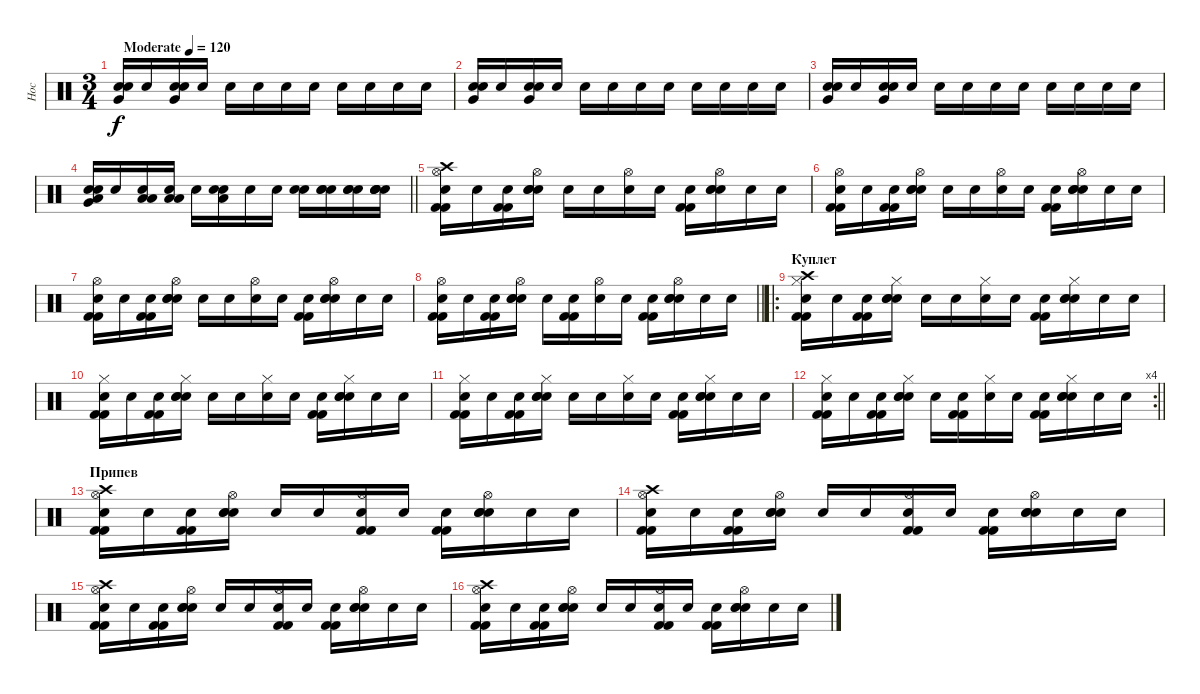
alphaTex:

\track ("Нос" "Нос") {instrument percussion}
\staff {score}
\articulation defaults
\ts (3 4)
\tempo (120 "Moderate")
\clef neutral
\ks c
("Very Low Tom (hit)" "Snare (hit) 2" "Snare (hit)").16{dy f} "Snare (hit)".16 ("Very Low Tom (hit)" "Snare (hit) 2" "Snare (hit)").16 "Snare (hit)".16 "Snare (hit)".16 "Snare (hit)".16 "Snare (hit)".16 "Snare (hit)".16 "Snare (hit)".16 "Snare (hit)".16 "Snare (hit)".16 "Snare (hit)".16 |
("Very Low Tom (hit)" "Snare (hit) 2" "Snare (hit)").16 "Snare (hit)".16 ("Very Low Tom (hit)" "Snare (hit) 2" "Snare (hit)").16 "Snare (hit)".16 "Snare (hit)".16 "Snare (hit)".16 "Snare (hit)".16 "Snare (hit)".16 "Snare (hit)".16 "Snare (hit)".16 "Snare (hit)".16 "Snare (hit)".16 |
("Very Low Tom (hit)" "Snare (hit) 2" "Snare (hit)").16 "Snare (hit)".16 ("Very Low Tom (hit)" "Snare (hit) 2" "Snare (hit)").16 "Snare (hit)".16 "Snare (hit)".16 "Snare (hit)".16 "Snare (hit)".16 "Snare (hit)".16 "Snare (hit)".16 "Snare (hit)".16 "Snare (hit)".16 "Snare (hit)".16 |
\barLineRight lightlight
("Very Low Tom (hit)" "Snare (hit) 2" "Low Tom (hit)" "Snare (hit)").16 "Snare (hit)".16 ("Low Tom (hit)" "Low Tom (hit)" "Snare (hit)").16 ("Low Floor Tom (hit)" "Low Floor Tom (hit)" "Snare (hit)").16 "Snare (hit)".16 ("Snare (hit) 2" "Low Tom (hit)" "Snare (hit)").16 "Snare (hit)".16 "Snare (hit)".16 ("Snare (hit) 2" "Snare (hit)").16 ("Snare (hit) 2" "Snare (hit) 2" "Snare (hit)").16 ("Snare (hit) 2" "Snare (hit) 2" "Snare (hit)").16 ("Snare (hit) 2" "Snare (hit) 2" "Snare (hit) 2" "Snare (hit)").16 |
\section ("" "")
("Crash high (hit)" "Hi-Hat (open)" "Kick (hit) 2" "Kick (hit) 2" "Snare (hit)").16 "Snare (hit)".16 ("Kick (hit) 2" "Kick (hit) 2" "Snare (hit)").16 ("Hi-Hat (open)" "Snare (hit) 2" "Snare (hit) 2" "Snare (hit)").16 "Snare (hit)".16 "Snare (hit)".16 ("Hi-Hat (open)" "Snare (hit)").16 "Snare (hit)".16 ("Kick (hit) 2" "Kick (hit) 2" "Snare (hit)").16 ("Hi-Hat (open)" "Snare (hit) 2" "Snare (hit) 2" "Snare (hit)").16 "Snare (hit)".16 "Snare (hit)".16 |
("Hi-Hat (open)" "Kick (hit) 2" "Kick (hit) 2" "Snare (hit)").16 "Snare (hit)".16 ("Kick (hit) 2" "Kick (hit) 2" "Snare (hit)").16 ("Hi-Hat (open)" "Snare (hit) 2" "Snare (hit) 2" "Snare (hit)").16 "Snare (hit)".16 "Snare (hit)".16 ("Hi-Hat (open)" "Snare (hit)").16 "Snare (hit)".16 ("Kick (hit) 2" "Kick (hit) 2" "Snare (hit)").16 ("Hi-Hat (open)" "Snare (hit) 2" "Snare (hit) 2" "Snare (hit)").16 "Snare (hit)".16 "Snare (hit)".16 |
("Hi-Hat (open)" "Kick (hit) 2" "Kick (hit) 2" "Snare (hit)").16 "Snare (hit)".16 ("Kick (hit) 2" "Kick (hit) 2" "Snare (hit)").16 ("Hi-Hat (open)" "Snare (hit) 2" "Snare (hit) 2" "Snare (hit)").16 "Snare (hit)".16 "Snare (hit)".16 ("Hi-Hat (open)" "Snare (hit)").16 "Snare (hit)".16 ("Kick (hit) 2" "Kick (hit) 2" "Snare (hit)").16 ("Hi-Hat (open)" "Snare (hit) 2" "Snare (hit) 2" "Snare (hit)").16 "Snare (hit)".16 "Snare (hit)".16 |
\barLineRight lightlight
("Hi-Hat (open)" "Kick (hit) 2" "Kick (hit) 2" "Snare (hit)").16 "Snare (hit)".16 ("Kick (hit) 2" "Kick (hit) 2" "Snare (hit)").16 ("Hi-Hat (open)" "Snare (hit) 2" "Snare (hit) 2" "Snare (hit)").16 "Snare (hit)".16 ("Kick (hit) 2" "Kick (hit) 2" "Snare (hit)").16 ("Hi-Hat (open)" "Snare (hit)").16 "Snare (hit)".16 ("Kick (hit) 2" "Kick (hit) 2" "Snare (hit)").16 ("Hi-Hat (open)" "Snare (hit) 2" "Snare (hit) 2" "Snare (hit)").16 "Snare (hit)".16 "Snare (hit)".16 |
\ro
\section ("" "Куплет")
("Crash high (hit)" "Hi-Hat (closed)" "Kick (hit) 2" "Kick (hit) 2" "Snare (hit)").16 "Snare (hit)".16 ("Kick (hit) 2" "Kick (hit) 2" "Snare (hit)").16 ("Hi-Hat (closed)" "Snare (hit) 2" "Snare (hit) 2" "Snare (hit)").16 "Snare (hit)".16 "Snare (hit)".16 ("Hi-Hat (closed)" "Snare (hit)").16 "Snare (hit)".16 ("Kick (hit) 2" "Kick (hit) 2" "Snare (hit)").16 ("Hi-Hat (closed)" "Snare (hit) 2" "Snare (hit) 2" "Snare (hit)").16 "Snare (hit)".16 "Snare (hit)".16 |
("Hi-Hat (closed)" "Kick (hit) 2" "Kick (hit) 2" "Snare (hit)").16 "Snare (hit)".16 ("Kick (hit) 2" "Kick (hit) 2" "Snare (hit)").16 ("Hi-Hat (closed)" "Snare (hit) 2" "Snare (hit) 2" "Snare (hit)").16 "Snare (hit)".16 "Snare (hit)".16 ("Hi-Hat (closed)" "Snare (hit)").16 "Snare (hit)".16 ("Kick (hit) 2" "Kick (hit) 2" "Snare (hit)").16 ("Hi-Hat (closed)" "Snare (hit) 2" "Snare (hit) 2" "Snare (hit)").16 "Snare (hit)".16 "Snare (hit)".16 |
("Hi-Hat (closed)" "Kick (hit) 2" "Kick (hit) 2" "Snare (hit)").16 "Snare (hit)".16 ("Kick (hit) 2" "Kick (hit) 2" "Snare (hit)").16 ("Hi-Hat (closed)" "Snare (hit) 2" "Snare (hit) 2" "Snare (hit)").16 "Snare (hit)".16 "Snare (hit)".16 ("Hi-Hat (closed)" "Snare (hit)").16 "Snare (hit)".16 ("Kick (hit) 2" "Kick (hit) 2" "Snare (hit)").16 ("Hi-Hat (closed)" "Snare (hit) 2" "Snare (hit) 2" "Snare (hit)").16 "Snare (hit)".16 "Snare (hit)".16 |
\rc 4
\barLineRight lightlight
("Hi-Hat (closed)" "Kick (hit) 2" "Kick (hit) 2" "Snare (hit)").16 "Snare (hit)".16 ("Kick (hit) 2" "Kick (hit) 2" "Snare (hit)").16 ("Hi-Hat (closed)" "Snare (hit) 2" "Snare (hit) 2" "Snare (hit)").16 "Snare (hit)".16 ("Kick (hit) 2" "Kick (hit) 2" "Snare (hit)").16 ("Hi-Hat (closed)" "Snare (hit)").16 "Snare (hit)".16 ("Kick (hit) 2" "Kick (hit) 2" "Snare (hit)").16 ("Hi-Hat (closed)" "Snare (hit) 2" "Snare (hit) 2" "Snare (hit)").16 "Snare (hit)".16 "Snare (hit)".16 |
\section ("" "Припев")
("Crash high (hit)" "Hi-Hat (open)" "Kick (hit) 2" "Kick (hit) 2" "Snare (hit)").16 "Snare (hit)".16 ("Kick (hit) 2" "Kick (hit) 2" "Snare (hit)").16 ("Hi-Hat (open)" "Snare (hit) 2" "Snare (hit) 2" "Snare (hit)").16 "Snare (hit)".16 "Snare (hit)".16 ("Hi-Hat (open)" "Kick (hit) 2" "Kick (hit) 2" "Snare (hit)").16 "Snare (hit)".16 ("Kick (hit) 2" "Kick (hit) 2" "Snare (hit)").16 ("Hi-Hat (open)" "Snare (hit) 2" "Snare (hit) 2" "Snare (hit)").16 "Snare (hit)".16 "Snare (hit)".16 |
("Crash high (hit)" "Hi-Hat (open)" "Kick (hit) 2" "Kick (hit) 2" "Snare (hit)").16 "Snare (hit)".16 ("Kick (hit) 2" "Kick (hit) 2" "Snare (hit)").16 ("Hi-Hat (open)" "Snare (hit) 2" "Snare (hit) 2" "Snare (hit)").16 "Snare (hit)".16 "Snare (hit)".16 ("Hi-Hat (open)" "Kick (hit) 2" "Kick (hit) 2" "Snare (hit)").16 "Snare (hit)".16 ("Kick (hit) 2" "Kick (hit) 2" "Snare (hit)").16 ("Hi-Hat (open)" "Snare (hit) 2" "Snare (hit) 2" "Snare (hit)").16 "Snare (hit)".16 "Snare (hit)".16 |
("Crash high (hit)" "Hi-Hat (open)" "Kick (hit) 2" "Kick (hit) 2" "Snare (hit)").16 "Snare (hit)".16 ("Kick (hit) 2" "Kick (hit) 2" "Snare (hit)").16 ("Hi-Hat (open)" "Snare (hit) 2" "Snare (hit) 2" "Snare (hit)").16 "Snare (hit)".16 "Snare (hit)".16 ("Hi-Hat (open)" "Kick (hit) 2" "Kick (hit) 2" "Snare (hit)").16 "Snare (hit)".16 ("Kick (hit) 2" "Kick (hit) 2" "Snare (hit)").16 ("Hi-Hat (open)" "Snare (hit) 2" "Snare (hit) 2" "Snare (hit)").16 "Snare (hit)".16 "Snare (hit)".16 |
("Crash high (hit)" "Hi-Hat (open)" "Kick (hit) 2" "Kick (hit) 2" "Snare (hit)").16 "Snare (hit)".16 ("Kick (hit) 2" "Kick (hit) 2" "Snare (hit)").16 ("Hi-Hat (open)" "Snare (hit) 2" "Snare (hit) 2" "Snare (hit)").16 "Snare (hit)".16 "Snare (hit)".16 ("Hi-Hat (open)" "Kick (hit) 2" "Kick (hit) 2" "Snare (hit)").16 "Snare (hit)".16 ("Kick (hit) 2" "Kick (hit) 2" "Snare (hit)").16 ("Hi-Hat (open)" "Snare (hit) 2" "Snare (hit) 2" "Snare (hit)").16 "Snare (hit)".16 "Snare (hit)".16
